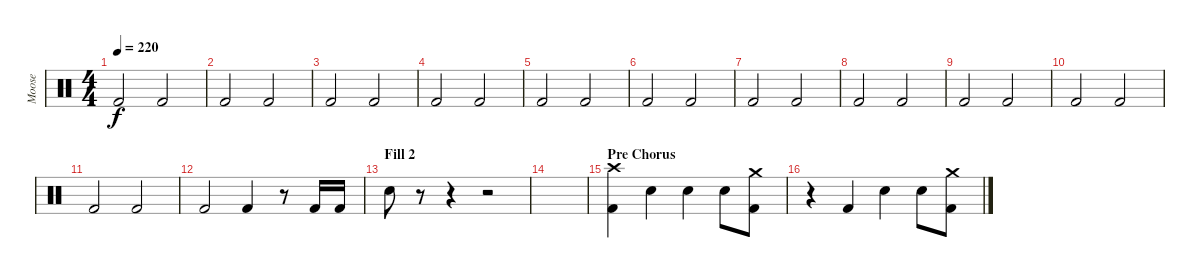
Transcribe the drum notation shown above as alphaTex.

\track ("Moose" "Moose") {instrument percussion}
\staff {score}
\articulation defaults
\ts (4 4)
\tempo 220
\clef neutral
\ks c "Kick (hit) 2".2{dy f} "Kick (hit) 2".2
|
"Kick (hit) 2".2 "Kick (hit) 2".2 |
"Kick (hit) 2".2 "Kick (hit) 2".2 |
"Kick (hit) 2".2 "Kick (hit) 2".2 |
"Kick (hit) 2".2 "Kick (hit) 2".2 |
"Kick (hit) 2".2 "Kick (hit) 2".2 |
"Kick (hit) 2".2 "Kick (hit) 2".2 |
"Kick (hit) 2".2 "Kick (hit) 2".2 |
"Kick (hit) 2".2 "Kick (hit) 2".2 |
"Kick (hit) 2".2 "Kick (hit) 2".2 |
"Kick (hit) 2".2 "Kick (hit) 2".2 |
"Kick (hit) 2".2 "Kick (hit) 2".4 r.8 "Kick (hit) 2".16 "Kick (hit) 2".16 |
\section ("" "Fill 2")
"Snare (hit) 2".8 r.8 r.4 r.2 |
|
\section ("" "Pre Chorus")
("Kick (hit) 2" "Crash high (hit)").4 "Snare (hit) 2".4 "Snare (hit) 2".4 "Snare (hit) 2".8 ("Kick (hit) 2" "Crash medium (hit)").8 |
r.4 "Kick (hit) 2".4 "Snare (hit) 2".4 "Snare (hit) 2".8 ("Kick (hit) 2" "Crash medium (hit)").8
